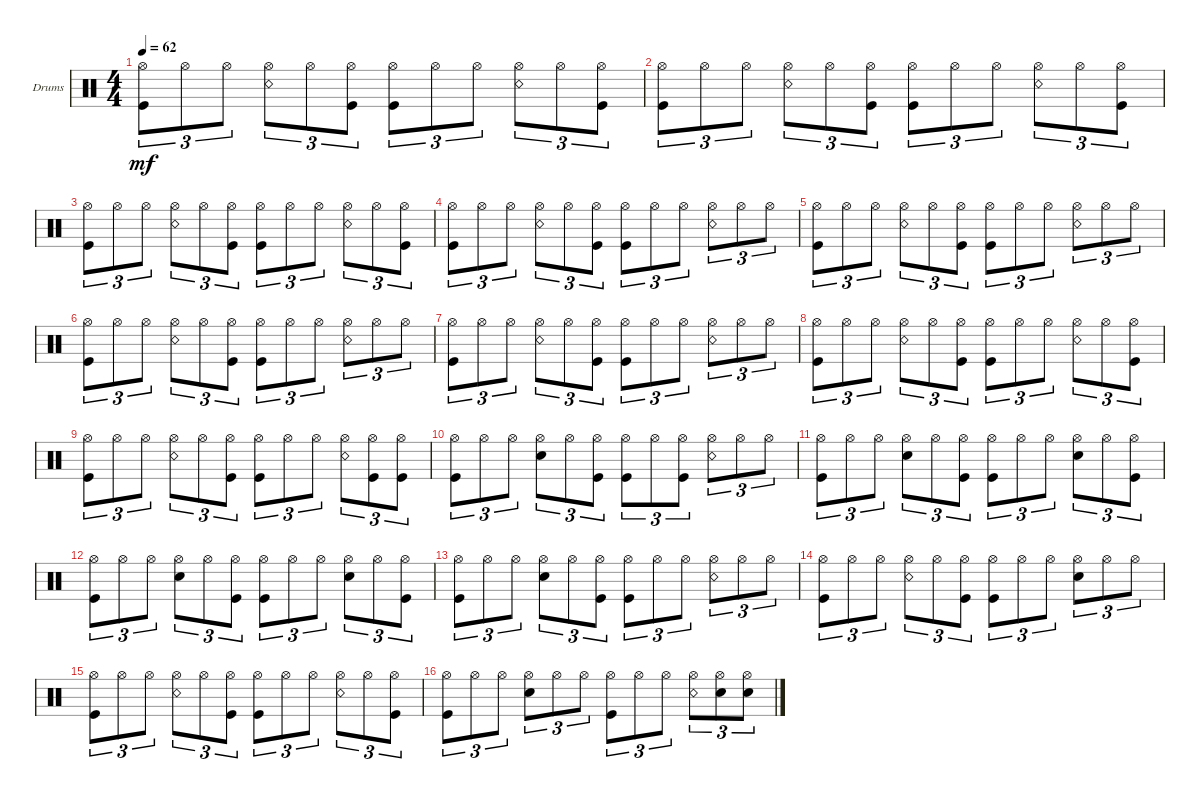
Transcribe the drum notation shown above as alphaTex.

\defaultSystemsLayout 4
\bracketExtendMode groupsimilarinstruments
\firstSystemTrackNameOrientation horizontal
\otherSystemsTrackNameOrientation horizontal
\track ("Drumkit" "Drums") {instrument percussion}
\staff {score}
\articulation defaults
\ts (4 4)
\tempo 62
\clef neutral
\ks c
("Hi-Hat (open)" "Kick (hit)").8{tu (3 2) dy mf} "Hi-Hat (open)".8{tu (3 2)} "Hi-Hat (open)".8{tu (3 2)} ("Hi-Hat (open)" "Snare (rim shot)").8{tu (3 2)} "Hi-Hat (open)".8{tu (3 2)} ("Hi-Hat (open)" "Kick (hit)").8{tu (3 2)} ("Hi-Hat (open)" "Kick (hit)").8{tu (3 2)} "Hi-Hat (open)".8{tu (3 2)} "Hi-Hat (open)".8{tu (3 2)} ("Hi-Hat (open)" "Snare (rim shot)").8{tu (3 2)} "Hi-Hat (open)".8{tu (3 2)} ("Hi-Hat (open)" "Kick (hit)").8{tu (3 2)} |
("Hi-Hat (open)" "Kick (hit)").8{tu (3 2)} "Hi-Hat (open)".8{tu (3 2)} "Hi-Hat (open)".8{tu (3 2)} ("Hi-Hat (open)" "Snare (rim shot)").8{tu (3 2)} "Hi-Hat (open)".8{tu (3 2)} ("Hi-Hat (open)" "Kick (hit)").8{tu (3 2)} ("Hi-Hat (open)" "Kick (hit)").8{tu (3 2)} "Hi-Hat (open)".8{tu (3 2)} "Hi-Hat (open)".8{tu (3 2)} ("Hi-Hat (open)" "Snare (rim shot)").8{tu (3 2)} "Hi-Hat (open)".8{tu (3 2)} ("Hi-Hat (open)" "Kick (hit)").8{tu (3 2)} |
("Hi-Hat (open)" "Kick (hit)").8{tu (3 2)} "Hi-Hat (open)".8{tu (3 2)} "Hi-Hat (open)".8{tu (3 2)} ("Hi-Hat (open)" "Snare (rim shot)").8{tu (3 2)} "Hi-Hat (open)".8{tu (3 2)} ("Hi-Hat (open)" "Kick (hit)").8{tu (3 2)} ("Hi-Hat (open)" "Kick (hit)").8{tu (3 2)} "Hi-Hat (open)".8{tu (3 2)} "Hi-Hat (open)".8{tu (3 2)} ("Hi-Hat (open)" "Snare (rim shot)").8{tu (3 2)} "Hi-Hat (open)".8{tu (3 2)} ("Hi-Hat (open)" "Kick (hit)").8{tu (3 2)} |
("Hi-Hat (open)" "Kick (hit)").8{tu (3 2)} "Hi-Hat (open)".8{tu (3 2)} "Hi-Hat (open)".8{tu (3 2)} ("Hi-Hat (open)" "Snare (rim shot)").8{tu (3 2)} "Hi-Hat (open)".8{tu (3 2)} ("Hi-Hat (open)" "Kick (hit)").8{tu (3 2)} ("Hi-Hat (open)" "Kick (hit)").8{tu (3 2)} "Hi-Hat (open)".8{tu (3 2)} "Hi-Hat (open)".8{tu (3 2)} ("Hi-Hat (open)" "Snare (rim shot)").8{tu (3 2)} "Hi-Hat (open)".8{tu (3 2)} "Hi-Hat (open)".8{tu (3 2)} |
("Hi-Hat (open)" "Kick (hit)").8{tu (3 2)} "Hi-Hat (open)".8{tu (3 2)} "Hi-Hat (open)".8{tu (3 2)} ("Hi-Hat (open)" "Snare (rim shot)").8{tu (3 2)} "Hi-Hat (open)".8{tu (3 2)} ("Hi-Hat (open)" "Kick (hit)").8{tu (3 2)} ("Hi-Hat (open)" "Kick (hit)").8{tu (3 2)} "Hi-Hat (open)".8{tu (3 2)} "Hi-Hat (open)".8{tu (3 2)} ("Hi-Hat (open)" "Snare (rim shot)").8{tu (3 2)} "Hi-Hat (open)".8{tu (3 2)} "Hi-Hat (open)".8{tu (3 2)} |
("Hi-Hat (open)" "Kick (hit)").8{tu (3 2)} "Hi-Hat (open)".8{tu (3 2)} "Hi-Hat (open)".8{tu (3 2)} ("Hi-Hat (open)" "Snare (rim shot)").8{tu (3 2)} "Hi-Hat (open)".8{tu (3 2)} ("Hi-Hat (open)" "Kick (hit)").8{tu (3 2)} ("Hi-Hat (open)" "Kick (hit)").8{tu (3 2)} "Hi-Hat (open)".8{tu (3 2)} "Hi-Hat (open)".8{tu (3 2)} ("Hi-Hat (open)" "Snare (rim shot)").8{tu (3 2)} "Hi-Hat (open)".8{tu (3 2)} "Hi-Hat (open)".8{tu (3 2)} |
("Hi-Hat (open)" "Kick (hit)").8{tu (3 2)} "Hi-Hat (open)".8{tu (3 2)} "Hi-Hat (open)".8{tu (3 2)} ("Hi-Hat (open)" "Snare (rim shot)").8{tu (3 2)} "Hi-Hat (open)".8{tu (3 2)} ("Hi-Hat (open)" "Kick (hit)").8{tu (3 2)} ("Hi-Hat (open)" "Kick (hit)").8{tu (3 2)} "Hi-Hat (open)".8{tu (3 2)} "Hi-Hat (open)".8{tu (3 2)} ("Hi-Hat (open)" "Snare (rim shot)").8{tu (3 2)} "Hi-Hat (open)".8{tu (3 2)} "Hi-Hat (open)".8{tu (3 2)} |
("Hi-Hat (open)" "Kick (hit)").8{tu (3 2)} "Hi-Hat (open)".8{tu (3 2)} "Hi-Hat (open)".8{tu (3 2)} ("Hi-Hat (open)" "Snare (rim shot)").8{tu (3 2)} "Hi-Hat (open)".8{tu (3 2)} ("Hi-Hat (open)" "Kick (hit)").8{tu (3 2)} ("Hi-Hat (open)" "Kick (hit)").8{tu (3 2)} "Hi-Hat (open)".8{tu (3 2)} "Hi-Hat (open)".8{tu (3 2)} ("Hi-Hat (open)" "Snare (rim shot)").8{tu (3 2)} "Hi-Hat (open)".8{tu (3 2)} ("Hi-Hat (open)" "Kick (hit)").8{tu (3 2)} |
("Hi-Hat (open)" "Kick (hit)").8{tu (3 2)} "Hi-Hat (open)".8{tu (3 2)} "Hi-Hat (open)".8{tu (3 2)} ("Hi-Hat (open)" "Snare (rim shot)").8{tu (3 2)} "Hi-Hat (open)".8{tu (3 2)} ("Hi-Hat (open)" "Kick (hit)").8{tu (3 2)} ("Hi-Hat (open)" "Kick (hit)").8{tu (3 2)} "Hi-Hat (open)".8{tu (3 2)} "Hi-Hat (open)".8{tu (3 2)} ("Hi-Hat (open)" "Snare (rim shot)").8{tu (3 2)} ("Hi-Hat (open)" "Kick (hit)").8{tu (3 2)} ("Hi-Hat (open)" "Kick (hit)").8{tu (3 2)} |
("Hi-Hat (open)" "Kick (hit)").8{tu (3 2)} "Hi-Hat (open)".8{tu (3 2)} "Hi-Hat (open)".8{tu (3 2)} ("Hi-Hat (open)" "Snare (hit) 2").8{tu (3 2)} "Hi-Hat (open)".8{tu (3 2)} ("Hi-Hat (open)" "Kick (hit)").8{tu (3 2)} ("Hi-Hat (open)" "Kick (hit)").8{tu (3 2)} "Hi-Hat (open)".8{tu (3 2)} ("Hi-Hat (open)" "Kick (hit)").8{tu (3 2)} ("Hi-Hat (open)" "Snare (rim shot)").8{tu (3 2)} "Hi-Hat (open)".8{tu (3 2)} "Hi-Hat (open)".8{tu (3 2)} |
("Hi-Hat (open)" "Kick (hit)").8{tu (3 2)} "Hi-Hat (open)".8{tu (3 2)} "Hi-Hat (open)".8{tu (3 2)} ("Hi-Hat (open)" "Snare (hit) 2").8{tu (3 2)} "Hi-Hat (open)".8{tu (3 2)} ("Hi-Hat (open)" "Kick (hit)").8{tu (3 2)} ("Hi-Hat (open)" "Kick (hit)").8{tu (3 2)} "Hi-Hat (open)".8{tu (3 2)} "Hi-Hat (open)".8{tu (3 2)} ("Hi-Hat (open)" "Snare (hit) 2").8{tu (3 2)} "Hi-Hat (open)".8{tu (3 2)} ("Hi-Hat (open)" "Kick (hit)").8{tu (3 2)} |
("Hi-Hat (open)" "Kick (hit)").8{tu (3 2)} "Hi-Hat (open)".8{tu (3 2)} "Hi-Hat (open)".8{tu (3 2)} ("Hi-Hat (open)" "Snare (hit) 2").8{tu (3 2)} "Hi-Hat (open)".8{tu (3 2)} ("Hi-Hat (open)" "Kick (hit)").8{tu (3 2)} ("Hi-Hat (open)" "Kick (hit)").8{tu (3 2)} "Hi-Hat (open)".8{tu (3 2)} "Hi-Hat (open)".8{tu (3 2)} ("Hi-Hat (open)" "Snare (hit) 2").8{tu (3 2)} "Hi-Hat (open)".8{tu (3 2)} ("Hi-Hat (open)" "Kick (hit)").8{tu (3 2)} |
("Hi-Hat (open)" "Kick (hit)").8{tu (3 2)} "Hi-Hat (open)".8{tu (3 2)} "Hi-Hat (open)".8{tu (3 2)} ("Hi-Hat (open)" "Snare (hit) 2").8{tu (3 2)} "Hi-Hat (open)".8{tu (3 2)} ("Hi-Hat (open)" "Kick (hit)").8{tu (3 2)} ("Hi-Hat (open)" "Kick (hit)").8{tu (3 2)} "Hi-Hat (open)".8{tu (3 2)} "Hi-Hat (open)".8{tu (3 2)} ("Hi-Hat (open)" "Snare (rim shot)").8{tu (3 2)} "Hi-Hat (open)".8{tu (3 2)} "Hi-Hat (open)".8{tu (3 2)} |
("Hi-Hat (open)" "Kick (hit)").8{tu (3 2)} "Hi-Hat (open)".8{tu (3 2)} "Hi-Hat (open)".8{tu (3 2)} ("Hi-Hat (open)" "Snare (rim shot)").8{tu (3 2)} "Hi-Hat (open)".8{tu (3 2)} ("Hi-Hat (open)" "Kick (hit)").8{tu (3 2)} ("Hi-Hat (open)" "Kick (hit)").8{tu (3 2)} "Hi-Hat (open)".8{tu (3 2)} "Hi-Hat (open)".8{tu (3 2)} ("Hi-Hat (open)" "Snare (hit) 2").8{tu (3 2)} "Hi-Hat (open)".8{tu (3 2)} "Hi-Hat (open)".8{tu (3 2)} |
("Hi-Hat (open)" "Kick (hit)").8{tu (3 2)} "Hi-Hat (open)".8{tu (3 2)} "Hi-Hat (open)".8{tu (3 2)} ("Hi-Hat (open)" "Snare (rim shot)").8{tu (3 2)} "Hi-Hat (open)".8{tu (3 2)} ("Hi-Hat (open)" "Kick (hit)").8{tu (3 2)} ("Hi-Hat (open)" "Kick (hit)").8{tu (3 2)} "Hi-Hat (open)".8{tu (3 2)} "Hi-Hat (open)".8{tu (3 2)} ("Hi-Hat (open)" "Snare (rim shot)").8{tu (3 2)} "Hi-Hat (open)".8{tu (3 2)} ("Hi-Hat (open)" "Kick (hit)").8{tu (3 2)} |
("Hi-Hat (open)" "Kick (hit)").8{tu (3 2)} "Hi-Hat (open)".8{tu (3 2)} "Hi-Hat (open)".8{tu (3 2)} ("Hi-Hat (open)" "Snare (hit) 2").8{tu (3 2)} "Hi-Hat (open)".8{tu (3 2)} "Hi-Hat (open)".8{tu (3 2)} ("Hi-Hat (open)" "Kick (hit)").8{tu (3 2)} "Hi-Hat (open)".8{tu (3 2)} "Hi-Hat (open)".8{tu (3 2)} ("Hi-Hat (open)" "Snare (rim shot)").8{tu (3 2)} ("Hi-Hat (open)" "Snare (hit) 2").8{tu (3 2)} ("Hi-Hat (open)" "Snare (hit) 2").8{tu (3 2)}
